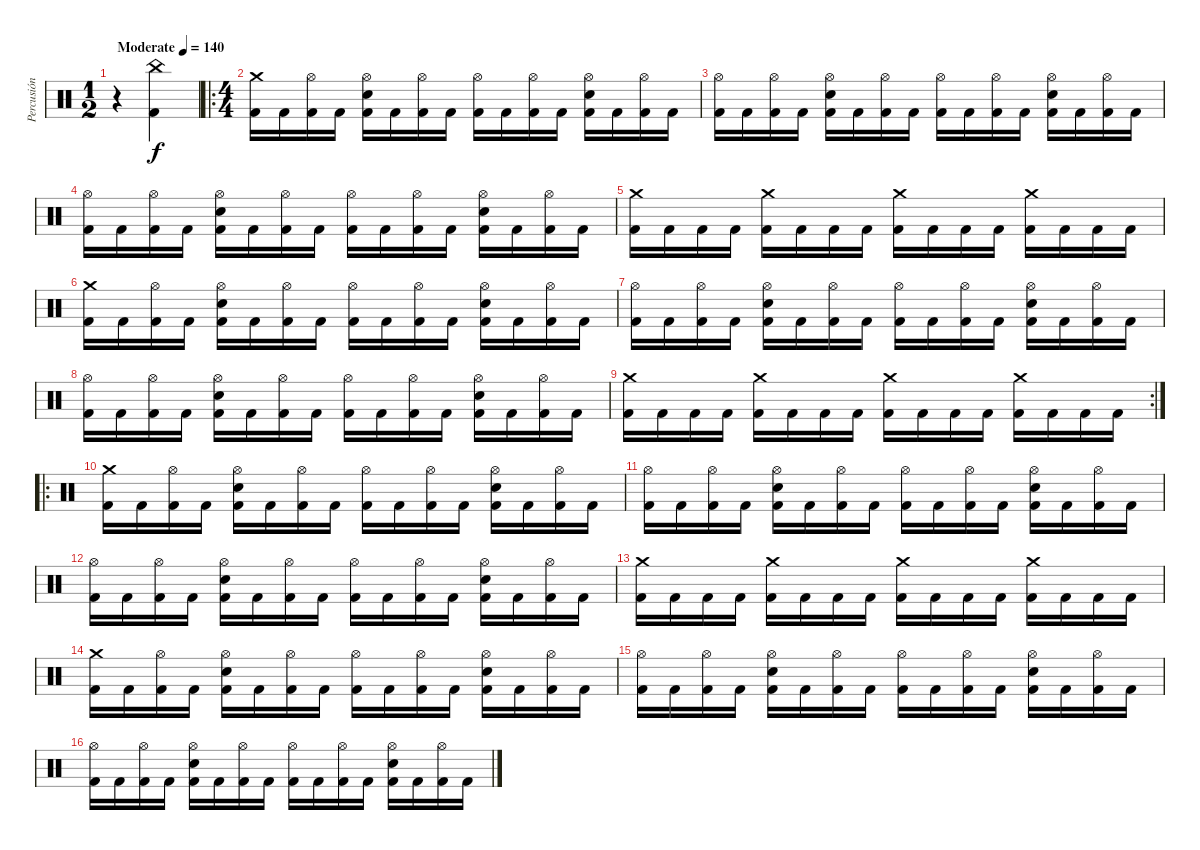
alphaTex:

\track ("Percusión" "Percusión") {instrument percussion}
\staff {score}
\articulation defaults
\ts (1 2)
\tempo (140 "Moderate")
\clef neutral
\ks c
r.4{dy f} ("China (hit)" "Kick (hit) 2").4 |
\ro
\ts (4 4)
("Crash medium (hit)" "Kick (hit) 2").16 "Kick (hit) 2".16 ("Hi-Hat (open)" "Kick (hit) 2").16 "Kick (hit) 2".16 ("Hi-Hat (open)" "Electric Snare (hit)" "Kick (hit) 2").16 "Kick (hit) 2".16 ("Hi-Hat (open)" "Kick (hit) 2").16 "Kick (hit) 2".16 ("Hi-Hat (open)" "Kick (hit) 2").16 "Kick (hit) 2".16 ("Hi-Hat (open)" "Kick (hit) 2").16 "Kick (hit) 2".16 ("Hi-Hat (open)" "Electric Snare (hit)" "Kick (hit) 2").16 "Kick (hit) 2".16 ("Hi-Hat (open)" "Kick (hit) 2").16 "Kick (hit) 2".16 |
("Hi-Hat (open)" "Kick (hit) 2").16 "Kick (hit) 2".16 ("Hi-Hat (open)" "Kick (hit) 2").16 "Kick (hit) 2".16 ("Hi-Hat (open)" "Electric Snare (hit)" "Kick (hit) 2").16 "Kick (hit) 2".16 ("Hi-Hat (open)" "Kick (hit) 2").16 "Kick (hit) 2".16 ("Hi-Hat (open)" "Kick (hit) 2").16 "Kick (hit) 2".16 ("Hi-Hat (open)" "Kick (hit) 2").16 "Kick (hit) 2".16 ("Hi-Hat (open)" "Electric Snare (hit)" "Kick (hit) 2").16 "Kick (hit) 2".16 ("Hi-Hat (open)" "Kick (hit) 2").16 "Kick (hit) 2".16 |
("Hi-Hat (open)" "Kick (hit) 2").16 "Kick (hit) 2".16 ("Hi-Hat (open)" "Kick (hit) 2").16 "Kick (hit) 2".16 ("Hi-Hat (open)" "Electric Snare (hit)" "Kick (hit) 2").16 "Kick (hit) 2".16 ("Hi-Hat (open)" "Kick (hit) 2").16 "Kick (hit) 2".16 ("Hi-Hat (open)" "Kick (hit) 2").16 "Kick (hit) 2".16 ("Hi-Hat (open)" "Kick (hit) 2").16 "Kick (hit) 2".16 ("Hi-Hat (open)" "Electric Snare (hit)" "Kick (hit) 2").16 "Kick (hit) 2".16 ("Hi-Hat (open)" "Kick (hit) 2").16 "Kick (hit) 2".16 |
("Crash medium (hit)" "Kick (hit) 2").16 "Kick (hit) 2".16 "Kick (hit) 2".16 "Kick (hit) 2".16 ("Crash medium (hit)" "Kick (hit) 2").16 "Kick (hit) 2".16 "Kick (hit) 2".16 "Kick (hit) 2".16 ("Crash medium (hit)" "Kick (hit) 2").16 "Kick (hit) 2".16 "Kick (hit) 2".16 "Kick (hit) 2".16 ("Crash medium (hit)" "Kick (hit) 2").16 "Kick (hit) 2".16 "Kick (hit) 2".16 "Kick (hit) 2".16 |
("Crash medium (hit)" "Kick (hit) 2").16 "Kick (hit) 2".16 ("Hi-Hat (open)" "Kick (hit) 2").16 "Kick (hit) 2".16 ("Hi-Hat (open)" "Electric Snare (hit)" "Kick (hit) 2").16 "Kick (hit) 2".16 ("Hi-Hat (open)" "Kick (hit) 2").16 "Kick (hit) 2".16 ("Hi-Hat (open)" "Kick (hit) 2").16 "Kick (hit) 2".16 ("Hi-Hat (open)" "Kick (hit) 2").16 "Kick (hit) 2".16 ("Hi-Hat (open)" "Electric Snare (hit)" "Kick (hit) 2").16 "Kick (hit) 2".16 ("Hi-Hat (open)" "Kick (hit) 2").16 "Kick (hit) 2".16 |
("Hi-Hat (open)" "Kick (hit) 2").16 "Kick (hit) 2".16 ("Hi-Hat (open)" "Kick (hit) 2").16 "Kick (hit) 2".16 ("Hi-Hat (open)" "Electric Snare (hit)" "Kick (hit) 2").16 "Kick (hit) 2".16 ("Hi-Hat (open)" "Kick (hit) 2").16 "Kick (hit) 2".16 ("Hi-Hat (open)" "Kick (hit) 2").16 "Kick (hit) 2".16 ("Hi-Hat (open)" "Kick (hit) 2").16 "Kick (hit) 2".16 ("Hi-Hat (open)" "Electric Snare (hit)" "Kick (hit) 2").16 "Kick (hit) 2".16 ("Hi-Hat (open)" "Kick (hit) 2").16 "Kick (hit) 2".16 |
("Hi-Hat (open)" "Kick (hit) 2").16 "Kick (hit) 2".16 ("Hi-Hat (open)" "Kick (hit) 2").16 "Kick (hit) 2".16 ("Hi-Hat (open)" "Electric Snare (hit)" "Kick (hit) 2").16 "Kick (hit) 2".16 ("Hi-Hat (open)" "Kick (hit) 2").16 "Kick (hit) 2".16 ("Hi-Hat (open)" "Kick (hit) 2").16 "Kick (hit) 2".16 ("Hi-Hat (open)" "Kick (hit) 2").16 "Kick (hit) 2".16 ("Hi-Hat (open)" "Electric Snare (hit)" "Kick (hit) 2").16 "Kick (hit) 2".16 ("Hi-Hat (open)" "Kick (hit) 2").16 "Kick (hit) 2".16 |
\rc 2
("Crash medium (hit)" "Kick (hit) 2").16 "Kick (hit) 2".16 "Kick (hit) 2".16 "Kick (hit) 2".16 ("Crash medium (hit)" "Kick (hit) 2").16 "Kick (hit) 2".16 "Kick (hit) 2".16 "Kick (hit) 2".16 ("Crash medium (hit)" "Kick (hit) 2").16 "Kick (hit) 2".16 "Kick (hit) 2".16 "Kick (hit) 2".16 ("Crash medium (hit)" "Kick (hit) 2").16 "Kick (hit) 2".16 "Kick (hit) 2".16 "Kick (hit) 2".16 |
\ro
("Crash medium (hit)" "Kick (hit) 2").16 "Kick (hit) 2".16 ("Hi-Hat (open)" "Kick (hit) 2").16 "Kick (hit) 2".16 ("Hi-Hat (open)" "Electric Snare (hit)" "Kick (hit) 2").16 "Kick (hit) 2".16 ("Hi-Hat (open)" "Kick (hit) 2").16 "Kick (hit) 2".16 ("Hi-Hat (open)" "Kick (hit) 2").16 "Kick (hit) 2".16 ("Hi-Hat (open)" "Kick (hit) 2").16 "Kick (hit) 2".16 ("Hi-Hat (open)" "Electric Snare (hit)" "Kick (hit) 2").16 "Kick (hit) 2".16 ("Hi-Hat (open)" "Kick (hit) 2").16 "Kick (hit) 2".16 |
("Hi-Hat (open)" "Kick (hit) 2").16 "Kick (hit) 2".16 ("Hi-Hat (open)" "Kick (hit) 2").16 "Kick (hit) 2".16 ("Hi-Hat (open)" "Electric Snare (hit)" "Kick (hit) 2").16 "Kick (hit) 2".16 ("Hi-Hat (open)" "Kick (hit) 2").16 "Kick (hit) 2".16 ("Hi-Hat (open)" "Kick (hit) 2").16 "Kick (hit) 2".16 ("Hi-Hat (open)" "Kick (hit) 2").16 "Kick (hit) 2".16 ("Hi-Hat (open)" "Electric Snare (hit)" "Kick (hit) 2").16 "Kick (hit) 2".16 ("Hi-Hat (open)" "Kick (hit) 2").16 "Kick (hit) 2".16 |
("Hi-Hat (open)" "Kick (hit) 2").16 "Kick (hit) 2".16 ("Hi-Hat (open)" "Kick (hit) 2").16 "Kick (hit) 2".16 ("Hi-Hat (open)" "Electric Snare (hit)" "Kick (hit) 2").16 "Kick (hit) 2".16 ("Hi-Hat (open)" "Kick (hit) 2").16 "Kick (hit) 2".16 ("Hi-Hat (open)" "Kick (hit) 2").16 "Kick (hit) 2".16 ("Hi-Hat (open)" "Kick (hit) 2").16 "Kick (hit) 2".16 ("Hi-Hat (open)" "Electric Snare (hit)" "Kick (hit) 2").16 "Kick (hit) 2".16 ("Hi-Hat (open)" "Kick (hit) 2").16 "Kick (hit) 2".16 |
("Crash medium (hit)" "Kick (hit) 2").16 "Kick (hit) 2".16 "Kick (hit) 2".16 "Kick (hit) 2".16 ("Crash medium (hit)" "Kick (hit) 2").16 "Kick (hit) 2".16 "Kick (hit) 2".16 "Kick (hit) 2".16 ("Crash medium (hit)" "Kick (hit) 2").16 "Kick (hit) 2".16 "Kick (hit) 2".16 "Kick (hit) 2".16 ("Crash medium (hit)" "Kick (hit) 2").16 "Kick (hit) 2".16 "Kick (hit) 2".16 "Kick (hit) 2".16 |
("Crash medium (hit)" "Kick (hit) 2").16 "Kick (hit) 2".16 ("Hi-Hat (open)" "Kick (hit) 2").16 "Kick (hit) 2".16 ("Hi-Hat (open)" "Electric Snare (hit)" "Kick (hit) 2").16 "Kick (hit) 2".16 ("Hi-Hat (open)" "Kick (hit) 2").16 "Kick (hit) 2".16 ("Hi-Hat (open)" "Kick (hit) 2").16 "Kick (hit) 2".16 ("Hi-Hat (open)" "Kick (hit) 2").16 "Kick (hit) 2".16 ("Hi-Hat (open)" "Electric Snare (hit)" "Kick (hit) 2").16 "Kick (hit) 2".16 ("Hi-Hat (open)" "Kick (hit) 2").16 "Kick (hit) 2".16 |
("Hi-Hat (open)" "Kick (hit) 2").16 "Kick (hit) 2".16 ("Hi-Hat (open)" "Kick (hit) 2").16 "Kick (hit) 2".16 ("Hi-Hat (open)" "Electric Snare (hit)" "Kick (hit) 2").16 "Kick (hit) 2".16 ("Hi-Hat (open)" "Kick (hit) 2").16 "Kick (hit) 2".16 ("Hi-Hat (open)" "Kick (hit) 2").16 "Kick (hit) 2".16 ("Hi-Hat (open)" "Kick (hit) 2").16 "Kick (hit) 2".16 ("Hi-Hat (open)" "Electric Snare (hit)" "Kick (hit) 2").16 "Kick (hit) 2".16 ("Hi-Hat (open)" "Kick (hit) 2").16 "Kick (hit) 2".16 |
("Hi-Hat (open)" "Kick (hit) 2").16 "Kick (hit) 2".16 ("Hi-Hat (open)" "Kick (hit) 2").16 "Kick (hit) 2".16 ("Hi-Hat (open)" "Electric Snare (hit)" "Kick (hit) 2").16 "Kick (hit) 2".16 ("Hi-Hat (open)" "Kick (hit) 2").16 "Kick (hit) 2".16 ("Hi-Hat (open)" "Kick (hit) 2").16 "Kick (hit) 2".16 ("Hi-Hat (open)" "Kick (hit) 2").16 "Kick (hit) 2".16 ("Hi-Hat (open)" "Electric Snare (hit)" "Kick (hit) 2").16 "Kick (hit) 2".16 ("Hi-Hat (open)" "Kick (hit) 2").16 "Kick (hit) 2".16
